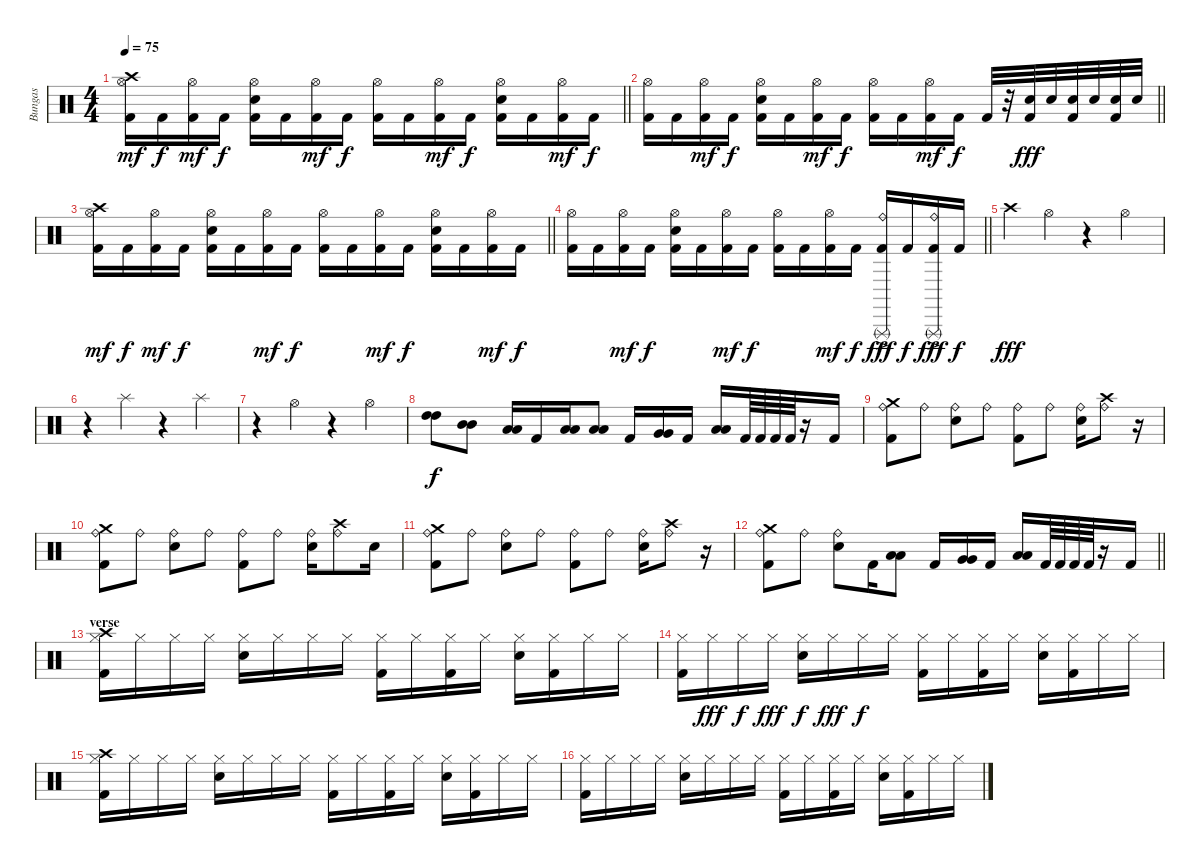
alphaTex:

\track ("Bungas" "Bungas") {instrument percussion}
\staff {score}
\articulation defaults
\ts (4 4)
\tempo 75
\clef neutral
\barLineRight lightlight
\ks c
("Hi-Hat (open)" "Crash high (hit)" "Kick (hit) 2").16{dy mf} "Kick (hit) 2".16{dy f} ("Hi-Hat (open)" "Kick (hit) 2").16{dy mf} "Kick (hit) 2".16{dy f} ("Hi-Hat (open)" "Electric Snare (hit)" "Kick (hit) 2").16 "Kick (hit) 2".16 ("Hi-Hat (open)" "Kick (hit) 2").16{dy mf} "Kick (hit) 2".16{dy f} ("Hi-Hat (open)" "Kick (hit) 2").16 "Kick (hit) 2".16 ("Hi-Hat (open)" "Kick (hit) 2").16{dy mf} "Kick (hit) 2".16{dy f} ("Hi-Hat (open)" "Electric Snare (hit)" "Kick (hit) 2").16 "Kick (hit) 2".16 ("Hi-Hat (open)" "Kick (hit) 2").16{dy mf} "Kick (hit) 2".16{dy f} |
\barLineRight lightlight
("Hi-Hat (open)" "Kick (hit) 2").16 "Kick (hit) 2".16 ("Hi-Hat (open)" "Kick (hit) 2").16{dy mf} "Kick (hit) 2".16{dy f} ("Hi-Hat (open)" "Electric Snare (hit)" "Kick (hit) 2").16 "Kick (hit) 2".16 ("Hi-Hat (open)" "Kick (hit) 2").16{dy mf} "Kick (hit) 2".16{dy f} ("Hi-Hat (open)" "Kick (hit) 2").16 "Kick (hit) 2".16 ("Hi-Hat (open)" "Kick (hit) 2").16{dy mf} "Kick (hit) 2".16{dy f} "Kick (hit) 2".32 r.32 ("Electric Snare (hit)" "Kick (hit) 2").32{dy fff} "Electric Snare (hit)".32 ("Electric Snare (hit)" "Kick (hit) 2").32 "Electric Snare (hit)".32 ("Electric Snare (hit)" "Kick (hit) 2").32 "Electric Snare (hit)".32 |
\barLineRight lightlight
("Hi-Hat (open)" "Crash high (hit)" "Kick (hit) 2").16{dy mf} "Kick (hit) 2".16{dy f} ("Hi-Hat (open)" "Kick (hit) 2").16{dy mf} "Kick (hit) 2".16{dy f} ("Hi-Hat (open)" "Electric Snare (hit)" "Kick (hit) 2").16 "Kick (hit) 2".16 ("Hi-Hat (open)" "Kick (hit) 2").16{dy mf} "Kick (hit) 2".16{dy f} ("Hi-Hat (open)" "Kick (hit) 2").16 "Kick (hit) 2".16 ("Hi-Hat (open)" "Kick (hit) 2").16{dy mf} "Kick (hit) 2".16{dy f} ("Hi-Hat (open)" "Electric Snare (hit)" "Kick (hit) 2").16 "Kick (hit) 2".16 ("Hi-Hat (open)" "Kick (hit) 2").16{dy mf} "Kick (hit) 2".16{dy f} |
\barLineRight lightlight
("Hi-Hat (open)" "Kick (hit) 2").16 "Kick (hit) 2".16 ("Hi-Hat (open)" "Kick (hit) 2").16{dy mf} "Kick (hit) 2".16{dy f} ("Hi-Hat (open)" "Electric Snare (hit)" "Kick (hit) 2").16 "Kick (hit) 2".16 ("Hi-Hat (open)" "Kick (hit) 2").16{dy mf} "Kick (hit) 2".16{dy f} ("Hi-Hat (open)" "Kick (hit) 2").16 "Kick (hit) 2".16 ("Hi-Hat (open)" "Kick (hit) 2").16{dy mf} "Kick (hit) 2".16{dy f} ("Ride (bell)"{ac} "Triangle (rnute)"{ac} "Kick (hit) 2").16{dy fff} "Kick (hit) 2".16{dy f} ("Ride (bell)" "Triangle (rnute)"{ac} "Kick (hit) 2").16{dy fff} "Kick (hit) 2".16{dy f} |
"Crash high (hit)".4{dy fff} "Hi-Hat (open)".4 r.4 "Hi-Hat (open)".4 |
r.4 "Splash (hit)".4 r.4 "Splash (hit)".4 |
r.4 "Hi-Hat (open)".4 r.4 "Hi-Hat (open)".4 |
("High Tom (hit)" "High Tom (hit)").8{dy f} ("Mid Tom (hit)" "Mid Tom (hit)").8 ("Low Tom (hit)" "Low Tom (hit)").16 "Kick (hit) 2".16 ("Low Tom (hit)" "Low Tom (hit)").16 ("Low Tom (hit)" "Low Tom (hit)").8 "Kick (hit) 2".16 ("Very Low Tom (hit)" "Very Low Tom (hit)").16 "Kick (hit) 2".16 ("Low Floor Tom (hit)" "Low Floor Tom (hit)").16 "Kick (hit) 2".64 "Kick (hit) 2".64 "Kick (hit) 2".64 "Kick (hit) 2".64 r.16 "Kick (hit) 2".16 |
("Ride (bell)" "Crash medium (hit)" "Kick (hit) 2").8 "Ride (bell)".8 ("Ride (bell)" "Electric Snare (hit)").8 "Ride (bell)".8 ("Ride (bell)" "Kick (hit) 2").8 "Ride (bell)".8 ("Ride (bell)" "Electric Snare (hit)").16 ("Ride (bell)" "Crash high (hit)").8 r.16 |
("Ride (bell)" "Crash medium (hit)" "Kick (hit) 2").8 "Ride (bell)".8 ("Ride (bell)" "Electric Snare (hit)").8 "Ride (bell)".8 ("Ride (bell)" "Kick (hit) 2").8 "Ride (bell)".8 ("Ride (bell)" "Electric Snare (hit)").16 ("Ride (bell)" "Crash high (hit)").8 "Electric Snare (hit)".16 |
("Ride (bell)" "Crash medium (hit)" "Kick (hit) 2").8 "Ride (bell)".8 ("Ride (bell)" "Electric Snare (hit)").8 "Ride (bell)".8 ("Ride (bell)" "Kick (hit) 2").8 "Ride (bell)".8 ("Ride (bell)" "Electric Snare (hit)").16 ("Ride (bell)" "Crash high (hit)").8 r.16 |
\barLineRight lightlight
("Ride (bell)" "Crash medium (hit)" "Kick (hit) 2").8 "Ride (bell)".8 ("Ride (bell)" "Electric Snare (hit)").8 "Kick (hit) 2".16 ("Low Tom (hit)" "Low Tom (hit)").8 "Kick (hit) 2".16 ("Very Low Tom (hit)" "Very Low Tom (hit)").16 "Kick (hit) 2".16 ("Low Floor Tom (hit)" "Low Floor Tom (hit)").16 "Kick (hit) 2".64 "Kick (hit) 2".64 "Kick (hit) 2".64 "Kick (hit) 2".64 r.16 "Kick (hit) 2".16 |
\section ("" "verse")
("Hi-Hat (closed)" "Crash high (hit)" "Kick (hit) 2").16 "Hi-Hat (closed)".16 "Hi-Hat (closed)".16 "Hi-Hat (closed)".16 ("Hi-Hat (closed)" "Electric Snare (hit)").16 "Hi-Hat (closed)".16 "Hi-Hat (closed)".16 "Hi-Hat (closed)".16 ("Hi-Hat (closed)" "Kick (hit) 2").16 "Hi-Hat (closed)".16 ("Hi-Hat (closed)" "Kick (hit) 2").16 "Hi-Hat (closed)".16 ("Hi-Hat (closed)" "Electric Snare (hit)").16 ("Hi-Hat (closed)" "Kick (hit) 2").16 "Hi-Hat (closed)".16 "Hi-Hat (closed)".16 |
("Hi-Hat (closed)" "Kick (hit) 2").16 "Hi-Hat (closed)".16{dy fff} "Hi-Hat (closed)".16{dy f} "Hi-Hat (closed)".16{dy fff} ("Hi-Hat (closed)" "Electric Snare (hit)").16{dy f} "Hi-Hat (closed)".16{dy fff} "Hi-Hat (closed)".16{dy f} "Hi-Hat (closed)".16 ("Hi-Hat (closed)" "Kick (hit) 2").16 "Hi-Hat (closed)".16 ("Hi-Hat (closed)" "Kick (hit) 2").16 "Hi-Hat (closed)".16 ("Hi-Hat (closed)" "Electric Snare (hit)").16 ("Hi-Hat (closed)" "Kick (hit) 2").16 "Hi-Hat (closed)".16 "Hi-Hat (closed)".16 |
("Hi-Hat (closed)" "Crash high (hit)" "Kick (hit) 2").16 "Hi-Hat (closed)".16 "Hi-Hat (closed)".16 "Hi-Hat (closed)".16 ("Hi-Hat (closed)" "Electric Snare (hit)").16 "Hi-Hat (closed)".16 "Hi-Hat (closed)".16 "Hi-Hat (closed)".16 ("Hi-Hat (closed)" "Kick (hit) 2").16 "Hi-Hat (closed)".16 ("Hi-Hat (closed)" "Kick (hit) 2").16 "Hi-Hat (closed)".16 ("Hi-Hat (closed)" "Electric Snare (hit)").16 ("Hi-Hat (closed)" "Kick (hit) 2").16 "Hi-Hat (closed)".16 "Hi-Hat (closed)".16 |
("Hi-Hat (closed)" "Kick (hit) 2").16 "Hi-Hat (closed)".16 "Hi-Hat (closed)".16 "Hi-Hat (closed)".16 ("Hi-Hat (closed)" "Electric Snare (hit)").16 "Hi-Hat (closed)".16 "Hi-Hat (closed)".16 "Hi-Hat (closed)".16 ("Hi-Hat (closed)" "Kick (hit) 2").16 "Hi-Hat (closed)".16 ("Hi-Hat (closed)" "Kick (hit) 2").16 "Hi-Hat (closed)".16 ("Hi-Hat (closed)" "Electric Snare (hit)").16 ("Hi-Hat (closed)" "Kick (hit) 2").16 "Hi-Hat (closed)".16 "Hi-Hat (closed)".16
